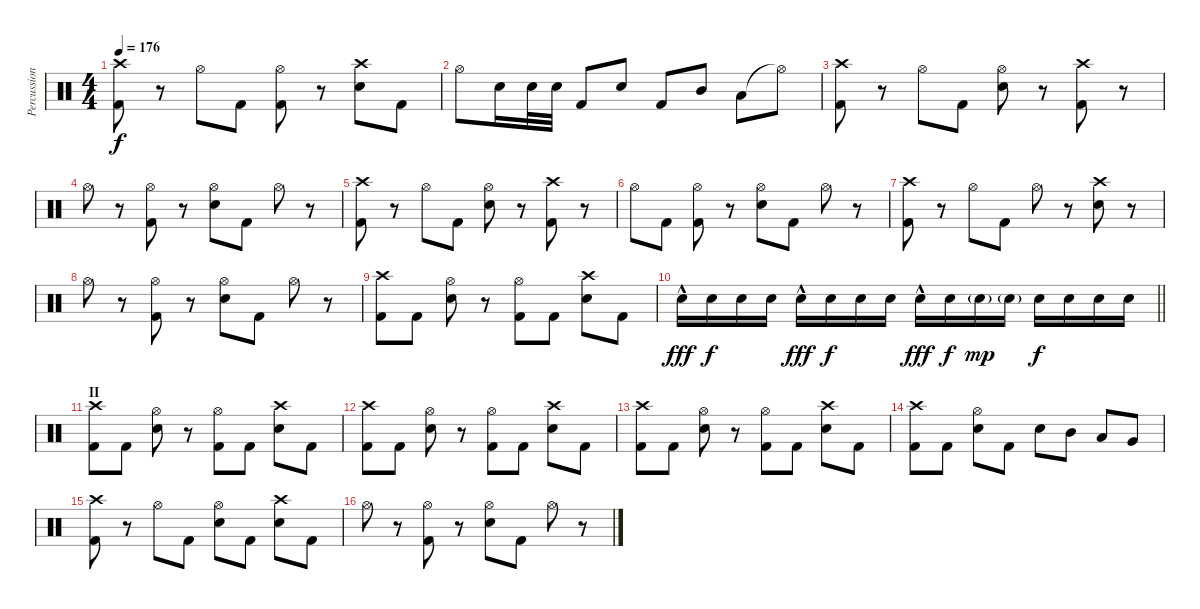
\track ("Percussion" "Percussion") {instrument percussion}
\staff {score}
\articulation defaults
\ts (4 4)
\tempo 176
\clef neutral
\ks c
("Crash high (hit)" "Kick (hit) 2").8{dy f} r.8 "Hi-Hat (open)".8 "Kick (hit) 2".8 ("Hi-Hat (open)" "Kick (hit) 2").8 r.8 ("Crash high (hit)" "Electric Snare (hit)").8 "Kick (hit) 2".8 |
"Hi-Hat (open)".8 "Electric Snare (hit)".16 "Electric Snare (hit)".32 "Electric Snare (hit)".32 "Kick (hit) 2".8 "Electric Snare (hit)".8 "Kick (hit) 2".8 "Mid Tom (hit)".8 "Low Tom (hit)".8 "Hi-Hat (open)"{t}.8 |
("Crash high (hit)" "Kick (hit) 2").8 r.8 "Hi-Hat (open)".8 "Kick (hit) 2".8 ("Hi-Hat (open)" "Electric Snare (hit)").8 r.8 ("Crash high (hit)" "Kick (hit) 2").8 r.8 |
"Hi-Hat (open)".8 r.8 ("Hi-Hat (open)" "Kick (hit) 2").8 r.8 ("Hi-Hat (open)" "Electric Snare (hit)").8 "Kick (hit) 2".8 "Hi-Hat (open)".8 r.8 |
("Crash high (hit)" "Kick (hit) 2").8 r.8 "Hi-Hat (open)".8 "Kick (hit) 2".8 ("Hi-Hat (open)" "Electric Snare (hit)").8 r.8 ("Crash high (hit)" "Kick (hit) 2").8 r.8 |
"Hi-Hat (open)".8 "Kick (hit) 2".8 ("Hi-Hat (open)" "Kick (hit) 2").8 r.8 ("Hi-Hat (open)" "Electric Snare (hit)").8 "Kick (hit) 2".8 "Hi-Hat (open)".8 r.8 |
("Crash high (hit)" "Kick (hit) 2").8 r.8 "Hi-Hat (open)".8 "Kick (hit) 2".8 "Hi-Hat (open)".8 r.8 ("Crash high (hit)" "Electric Snare (hit)").8 r.8 |
"Hi-Hat (open)".8 r.8 ("Hi-Hat (open)" "Kick (hit) 2").8 r.8 ("Hi-Hat (open)" "Electric Snare (hit)").8 "Kick (hit) 2".8 "Hi-Hat (open)".8 r.8 |
("Crash high (hit)" "Kick (hit) 2").8 "Kick (hit) 2".8 ("Hi-Hat (open)" "Electric Snare (hit)").8 r.8 ("Hi-Hat (open)" "Kick (hit) 2").8 "Kick (hit) 2".8 ("Crash high (hit)" "Electric Snare (hit)").8 "Kick (hit) 2".8 |
\barLineRight lightlight "Electric Snare (hit)"{hac}.16{dy fff volume 7} "Electric Snare (hit)".16{dy f} "Electric Snare (hit)".16 "Electric Snare (hit)".16 "Electric Snare (hit)"{hac}.16{dy fff volume 10} "Electric Snare (hit)".16{dy f} "Electric Snare (hit)".16 "Electric Snare (hit)".16 "Electric Snare (hit)"{hac}.16{dy fff volume 16} "Electric Snare (hit)".16{dy f} "Electric Snare (hit)"{g}.16{dy mp} "Electric Snare (hit)"{g}.16 "Electric Snare (hit)".16{dy f} "Electric Snare (hit)".16 "Electric Snare (hit)".16 "Electric Snare (hit)".16
|
\section ("" "II")
("Crash high (hit)" "Kick (hit) 2").8 "Kick (hit) 2".8 ("Hi-Hat (open)" "Electric Snare (hit)").8 r.8 ("Hi-Hat (open)" "Kick (hit) 2").8 "Kick (hit) 2".8 ("Crash high (hit)" "Electric Snare (hit)").8 "Kick (hit) 2".8 |
("Crash high (hit)" "Kick (hit) 2").8 "Kick (hit) 2".8 ("Hi-Hat (open)" "Electric Snare (hit)").8 r.8 ("Hi-Hat (open)" "Kick (hit) 2").8 "Kick (hit) 2".8 ("Crash high (hit)" "Electric Snare (hit)").8 "Kick (hit) 2".8 |
("Crash high (hit)" "Kick (hit) 2").8 "Kick (hit) 2".8 ("Hi-Hat (open)" "Electric Snare (hit)").8 r.8 ("Hi-Hat (open)" "Kick (hit) 2").8 "Kick (hit) 2".8 ("Crash high (hit)" "Electric Snare (hit)").8 "Kick (hit) 2".8 |
("Crash high (hit)" "Kick (hit) 2").8 "Kick (hit) 2".8 ("Hi-Hat (open)" "Electric Snare (hit)").8 "Kick (hit) 2".8 "Electric Snare (hit)".8 "Mid Tom (hit)".8 "Low Tom (hit)".8 "Very Low Tom (hit)".8 |
("Crash high (hit)" "Kick (hit) 2").8 r.8 "Hi-Hat (open)".8 "Kick (hit) 2".8 ("Hi-Hat (open)" "Electric Snare (hit)").8 "Kick (hit) 2".8 ("Crash high (hit)" "Electric Snare (hit)").8 "Kick (hit) 2".8 |
"Hi-Hat (open)".8 r.8 ("Hi-Hat (open)" "Kick (hit) 2").8 r.8 ("Hi-Hat (open)" "Electric Snare (hit)").8 "Kick (hit) 2".8 "Hi-Hat (open)".8 r.8
